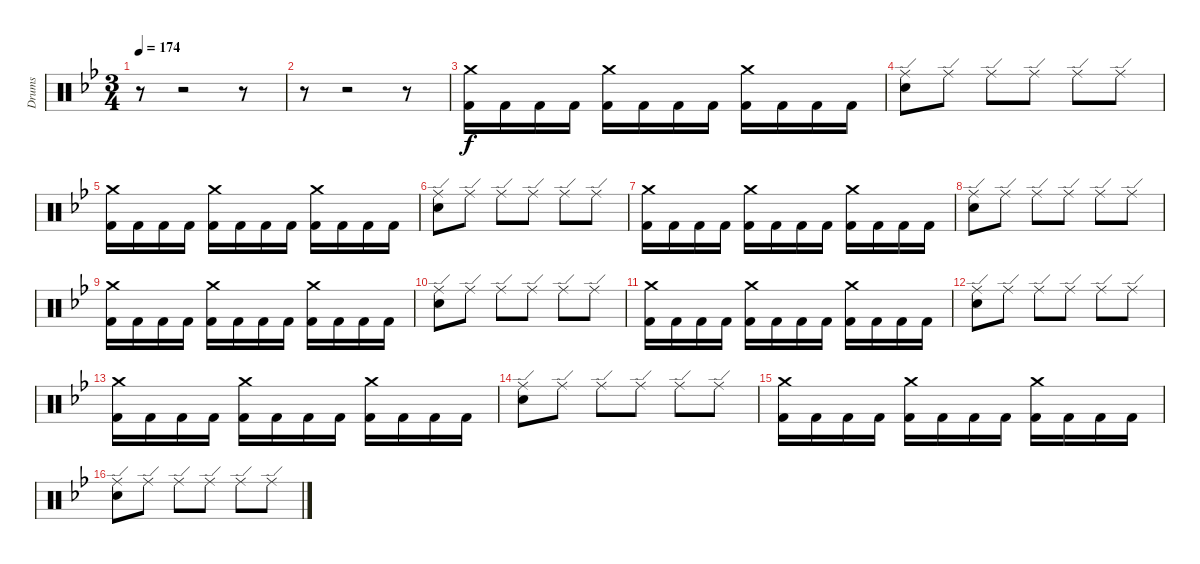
\bracketExtendMode groupsimilarinstruments
\track ("Drumkit" "Drums") {instrument percussion}
\staff {score}
\articulation defaults
\ts (3 4)
\tempo 174
\clef neutral
\ks bb
r.8{dy f} r.2 r.8 |
r.8 r.2 r.8 |
("Crash medium (hit)"{acc forcenatural} "Kick (hit) 2"{acc forcenatural}).16 "Kick (hit) 2"{acc forcenatural}.16 "Kick (hit) 2"{acc forcenatural}.16 "Kick (hit) 2"{acc forcenatural}.16 ("Crash medium (hit)"{acc forcenatural} "Kick (hit) 2"{acc forcenatural}).16 "Kick (hit) 2"{acc forcenatural}.16 "Kick (hit) 2"{acc forcenatural}.16 "Kick (hit) 2"{acc forcenatural}.16 ("Crash medium (hit)"{acc forcenatural} "Kick (hit) 2"{acc forcenatural}).16 "Kick (hit) 2"{acc forcenatural}.16 "Kick (hit) 2"{acc forcenatural}.16 "Kick (hit) 2"{acc forcenatural}.16 |
("Ride (edge)"{acc forcenatural} "Snare (hit) 2"{acc forcenatural}).8 "Ride (edge)"{acc forcenatural}.8 "Ride (edge)"{acc forcenatural}.8 "Ride (edge)"{acc forcenatural}.8 "Ride (edge)"{acc forcenatural}.8 "Ride (edge)"{acc forcenatural}.8 |
("Crash medium (hit)"{acc forcenatural} "Kick (hit) 2"{acc forcenatural}).16 "Kick (hit) 2"{acc forcenatural}.16 "Kick (hit) 2"{acc forcenatural}.16 "Kick (hit) 2"{acc forcenatural}.16 ("Crash medium (hit)"{acc forcenatural} "Kick (hit) 2"{acc forcenatural}).16 "Kick (hit) 2"{acc forcenatural}.16 "Kick (hit) 2"{acc forcenatural}.16 "Kick (hit) 2"{acc forcenatural}.16 ("Crash medium (hit)"{acc forcenatural} "Kick (hit) 2"{acc forcenatural}).16 "Kick (hit) 2"{acc forcenatural}.16 "Kick (hit) 2"{acc forcenatural}.16 "Kick (hit) 2"{acc forcenatural}.16 |
("Ride (edge)"{acc forcenatural} "Snare (hit) 2"{acc forcenatural}).8 "Ride (edge)"{acc forcenatural}.8 "Ride (edge)"{acc forcenatural}.8 "Ride (edge)"{acc forcenatural}.8 "Ride (edge)"{acc forcenatural}.8 "Ride (edge)"{acc forcenatural}.8 |
("Crash medium (hit)"{acc forcenatural} "Kick (hit) 2"{acc forcenatural}).16 "Kick (hit) 2"{acc forcenatural}.16 "Kick (hit) 2"{acc forcenatural}.16 "Kick (hit) 2"{acc forcenatural}.16 ("Crash medium (hit)"{acc forcenatural} "Kick (hit) 2"{acc forcenatural}).16 "Kick (hit) 2"{acc forcenatural}.16 "Kick (hit) 2"{acc forcenatural}.16 "Kick (hit) 2"{acc forcenatural}.16 ("Crash medium (hit)"{acc forcenatural} "Kick (hit) 2"{acc forcenatural}).16 "Kick (hit) 2"{acc forcenatural}.16 "Kick (hit) 2"{acc forcenatural}.16 "Kick (hit) 2"{acc forcenatural}.16 |
("Ride (edge)"{acc forcenatural} "Snare (hit) 2"{acc forcenatural}).8 "Ride (edge)"{acc forcenatural}.8 "Ride (edge)"{acc forcenatural}.8 "Ride (edge)"{acc forcenatural}.8 "Ride (edge)"{acc forcenatural}.8 "Ride (edge)"{acc forcenatural}.8 |
("Crash medium (hit)"{acc forcenatural} "Kick (hit) 2"{acc forcenatural}).16 "Kick (hit) 2"{acc forcenatural}.16 "Kick (hit) 2"{acc forcenatural}.16 "Kick (hit) 2"{acc forcenatural}.16 ("Crash medium (hit)"{acc forcenatural} "Kick (hit) 2"{acc forcenatural}).16 "Kick (hit) 2"{acc forcenatural}.16 "Kick (hit) 2"{acc forcenatural}.16 "Kick (hit) 2"{acc forcenatural}.16 ("Crash medium (hit)"{acc forcenatural} "Kick (hit) 2"{acc forcenatural}).16 "Kick (hit) 2"{acc forcenatural}.16 "Kick (hit) 2"{acc forcenatural}.16 "Kick (hit) 2"{acc forcenatural}.16 |
("Ride (edge)"{acc forcenatural} "Snare (hit) 2"{acc forcenatural}).8 "Ride (edge)"{acc forcenatural}.8 "Ride (edge)"{acc forcenatural}.8 "Ride (edge)"{acc forcenatural}.8 "Ride (edge)"{acc forcenatural}.8 "Ride (edge)"{acc forcenatural}.8 |
("Crash medium (hit)"{acc forcenatural} "Kick (hit) 2"{acc forcenatural}).16 "Kick (hit) 2"{acc forcenatural}.16 "Kick (hit) 2"{acc forcenatural}.16 "Kick (hit) 2"{acc forcenatural}.16 ("Crash medium (hit)"{acc forcenatural} "Kick (hit) 2"{acc forcenatural}).16 "Kick (hit) 2"{acc forcenatural}.16 "Kick (hit) 2"{acc forcenatural}.16 "Kick (hit) 2"{acc forcenatural}.16 ("Crash medium (hit)"{acc forcenatural} "Kick (hit) 2"{acc forcenatural}).16 "Kick (hit) 2"{acc forcenatural}.16 "Kick (hit) 2"{acc forcenatural}.16 "Kick (hit) 2"{acc forcenatural}.16 |
("Ride (edge)"{acc forcenatural} "Snare (hit) 2"{acc forcenatural}).8 "Ride (edge)"{acc forcenatural}.8 "Ride (edge)"{acc forcenatural}.8 "Ride (edge)"{acc forcenatural}.8 "Ride (edge)"{acc forcenatural}.8 "Ride (edge)"{acc forcenatural}.8 |
("Crash medium (hit)"{acc forcenatural} "Kick (hit) 2"{acc forcenatural}).16 "Kick (hit) 2"{acc forcenatural}.16 "Kick (hit) 2"{acc forcenatural}.16 "Kick (hit) 2"{acc forcenatural}.16 ("Crash medium (hit)"{acc forcenatural} "Kick (hit) 2"{acc forcenatural}).16 "Kick (hit) 2"{acc forcenatural}.16 "Kick (hit) 2"{acc forcenatural}.16 "Kick (hit) 2"{acc forcenatural}.16 ("Crash medium (hit)"{acc forcenatural} "Kick (hit) 2"{acc forcenatural}).16 "Kick (hit) 2"{acc forcenatural}.16 "Kick (hit) 2"{acc forcenatural}.16 "Kick (hit) 2"{acc forcenatural}.16 |
("Ride (edge)"{acc forcenatural} "Snare (hit) 2"{acc forcenatural}).8 "Ride (edge)"{acc forcenatural}.8 "Ride (edge)"{acc forcenatural}.8 "Ride (edge)"{acc forcenatural}.8 "Ride (edge)"{acc forcenatural}.8 "Ride (edge)"{acc forcenatural}.8 |
("Crash medium (hit)"{acc forcenatural} "Kick (hit) 2"{acc forcenatural}).16 "Kick (hit) 2"{acc forcenatural}.16 "Kick (hit) 2"{acc forcenatural}.16 "Kick (hit) 2"{acc forcenatural}.16 ("Crash medium (hit)"{acc forcenatural} "Kick (hit) 2"{acc forcenatural}).16 "Kick (hit) 2"{acc forcenatural}.16 "Kick (hit) 2"{acc forcenatural}.16 "Kick (hit) 2"{acc forcenatural}.16 ("Crash medium (hit)"{acc forcenatural} "Kick (hit) 2"{acc forcenatural}).16 "Kick (hit) 2"{acc forcenatural}.16 "Kick (hit) 2"{acc forcenatural}.16 "Kick (hit) 2"{acc forcenatural}.16 |
("Ride (edge)"{acc forcenatural} "Snare (hit) 2"{acc forcenatural}).8 "Ride (edge)"{acc forcenatural}.8 "Ride (edge)"{acc forcenatural}.8 "Ride (edge)"{acc forcenatural}.8 "Ride (edge)"{acc forcenatural}.8 "Ride (edge)"{acc forcenatural}.8
